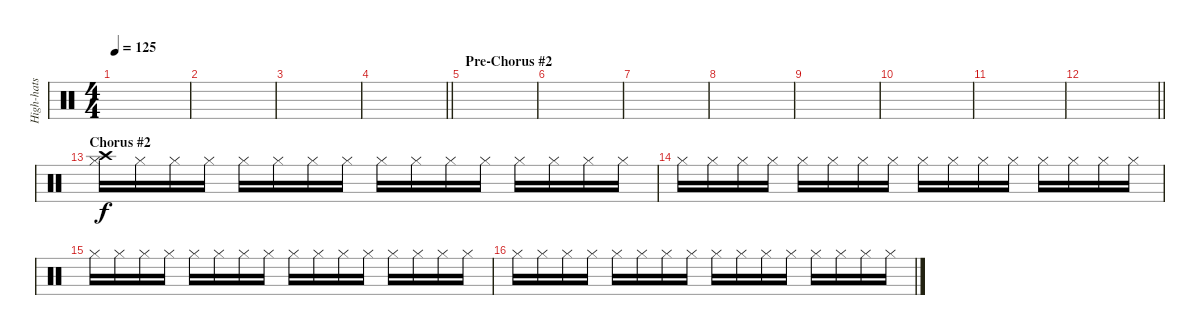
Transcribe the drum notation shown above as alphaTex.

\track ("High-hats" "High-hats") {instrument percussion}
\staff {score}
\articulation defaults
\ts (4 4)
\tempo 125
\clef neutral
\ks c
|
|
|
\barLineRight lightlight
|
\section ("" "Pre-Chorus #2")
|
|
|
|
|
|
|
\barLineRight lightlight
|
\section ("" "Chorus #2")
("Hi-Hat (closed)" "Crash high (hit)").16 "Hi-Hat (closed)".16 "Hi-Hat (closed)".16 "Hi-Hat (closed)".16 "Hi-Hat (closed)".16 "Hi-Hat (closed)".16 "Hi-Hat (closed)".16 "Hi-Hat (closed)".16 "Hi-Hat (closed)".16 "Hi-Hat (closed)".16 "Hi-Hat (closed)".16 "Hi-Hat (closed)".16 "Hi-Hat (closed)".16 "Hi-Hat (closed)".16 "Hi-Hat (closed)".16 "Hi-Hat (closed)".16 |
"Hi-Hat (closed)".16 "Hi-Hat (closed)".16 "Hi-Hat (closed)".16 "Hi-Hat (closed)".16 "Hi-Hat (closed)".16 "Hi-Hat (closed)".16 "Hi-Hat (closed)".16 "Hi-Hat (closed)".16 "Hi-Hat (closed)".16 "Hi-Hat (closed)".16 "Hi-Hat (closed)".16 "Hi-Hat (closed)".16 "Hi-Hat (closed)".16 "Hi-Hat (closed)".16 "Hi-Hat (closed)".16 "Hi-Hat (closed)".16 |
"Hi-Hat (closed)".16 "Hi-Hat (closed)".16 "Hi-Hat (closed)".16 "Hi-Hat (closed)".16 "Hi-Hat (closed)".16 "Hi-Hat (closed)".16 "Hi-Hat (closed)".16 "Hi-Hat (closed)".16 "Hi-Hat (closed)".16 "Hi-Hat (closed)".16 "Hi-Hat (closed)".16 "Hi-Hat (closed)".16 "Hi-Hat (closed)".16 "Hi-Hat (closed)".16 "Hi-Hat (closed)".16 "Hi-Hat (closed)".16 |
"Hi-Hat (closed)".16 "Hi-Hat (closed)".16 "Hi-Hat (closed)".16 "Hi-Hat (closed)".16 "Hi-Hat (closed)".16 "Hi-Hat (closed)".16 "Hi-Hat (closed)".16 "Hi-Hat (closed)".16 "Hi-Hat (closed)".16 "Hi-Hat (closed)".16 "Hi-Hat (closed)".16 "Hi-Hat (closed)".16 "Hi-Hat (closed)".16 "Hi-Hat (closed)".16 "Hi-Hat (closed)".16 "Hi-Hat (closed)".16
